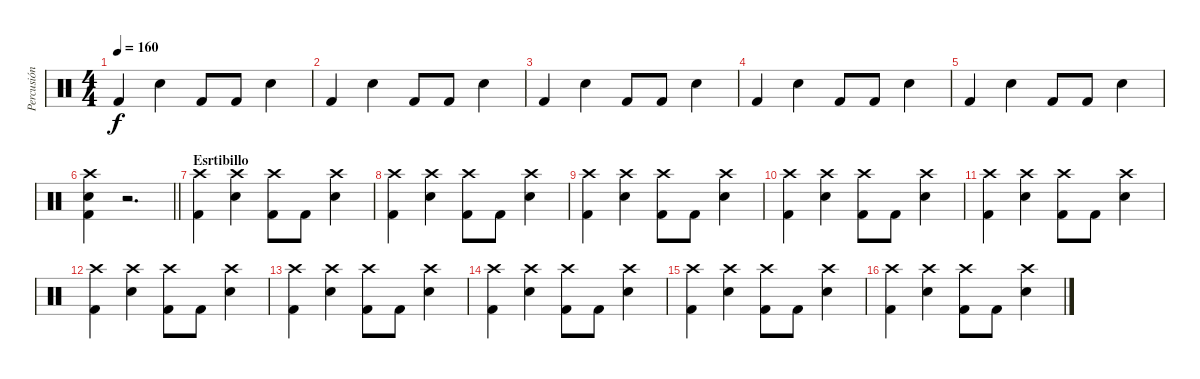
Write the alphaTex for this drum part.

\track ("Percusión" "Percusión") {instrument percussion}
\staff {score}
\articulation defaults
\ts (4 4)
\tempo 160
\clef neutral
\ks c "Kick (hit) 2".4{dy f} "Electric Snare (hit)".4 "Kick (hit) 2".8 "Kick (hit) 2".8 "Electric Snare (hit)".4
|
"Kick (hit) 2".4 "Electric Snare (hit)".4 "Kick (hit) 2".8 "Kick (hit) 2".8 "Electric Snare (hit)".4 |
"Kick (hit) 2".4 "Electric Snare (hit)".4 "Kick (hit) 2".8 "Kick (hit) 2".8 "Electric Snare (hit)".4 |
"Kick (hit) 2".4 "Electric Snare (hit)".4 "Kick (hit) 2".8 "Kick (hit) 2".8 "Electric Snare (hit)".4 |
"Kick (hit) 2".4 "Electric Snare (hit)".4 "Kick (hit) 2".8 "Kick (hit) 2".8 "Electric Snare (hit)".4 |
\barLineRight lightlight
("Crash high (hit)" "Electric Snare (hit)" "Kick (hit) 2").4 r.2{d} |
\section ("" "Esrtibillo")
("Crash high (hit)" "Kick (hit) 2").4 ("Crash high (hit)" "Electric Snare (hit)").4 ("Crash high (hit)" "Kick (hit) 2").8 "Kick (hit) 2".8 ("Crash high (hit)" "Electric Snare (hit)").4 |
("Crash high (hit)" "Kick (hit) 2").4 ("Crash high (hit)" "Electric Snare (hit)").4 ("Crash high (hit)" "Kick (hit) 2").8 "Kick (hit) 2".8 ("Crash high (hit)" "Electric Snare (hit)").4 |
("Crash high (hit)" "Kick (hit) 2").4 ("Crash high (hit)" "Electric Snare (hit)").4 ("Crash high (hit)" "Kick (hit) 2").8 "Kick (hit) 2".8 ("Crash high (hit)" "Electric Snare (hit)").4 |
("Crash high (hit)" "Kick (hit) 2").4 ("Crash high (hit)" "Electric Snare (hit)").4 ("Crash high (hit)" "Kick (hit) 2").8 "Kick (hit) 2".8 ("Crash high (hit)" "Electric Snare (hit)").4 |
("Crash high (hit)" "Kick (hit) 2").4 ("Crash high (hit)" "Electric Snare (hit)").4 ("Crash high (hit)" "Kick (hit) 2").8 "Kick (hit) 2".8 ("Crash high (hit)" "Electric Snare (hit)").4 |
("Crash high (hit)" "Kick (hit) 2").4 ("Crash high (hit)" "Electric Snare (hit)").4 ("Crash high (hit)" "Kick (hit) 2").8 "Kick (hit) 2".8 ("Crash high (hit)" "Electric Snare (hit)").4 |
("Crash high (hit)" "Kick (hit) 2").4 ("Crash high (hit)" "Electric Snare (hit)").4 ("Crash high (hit)" "Kick (hit) 2").8 "Kick (hit) 2".8 ("Crash high (hit)" "Electric Snare (hit)").4 |
("Crash high (hit)" "Kick (hit) 2").4 ("Crash high (hit)" "Electric Snare (hit)").4 ("Crash high (hit)" "Kick (hit) 2").8 "Kick (hit) 2".8 ("Crash high (hit)" "Electric Snare (hit)").4 |
("Crash high (hit)" "Kick (hit) 2").4 ("Crash high (hit)" "Electric Snare (hit)").4 ("Crash high (hit)" "Kick (hit) 2").8 "Kick (hit) 2".8 ("Crash high (hit)" "Electric Snare (hit)").4 |
("Crash high (hit)" "Kick (hit) 2").4 ("Crash high (hit)" "Electric Snare (hit)").4 ("Crash high (hit)" "Kick (hit) 2").8 "Kick (hit) 2".8 ("Crash high (hit)" "Electric Snare (hit)").4
